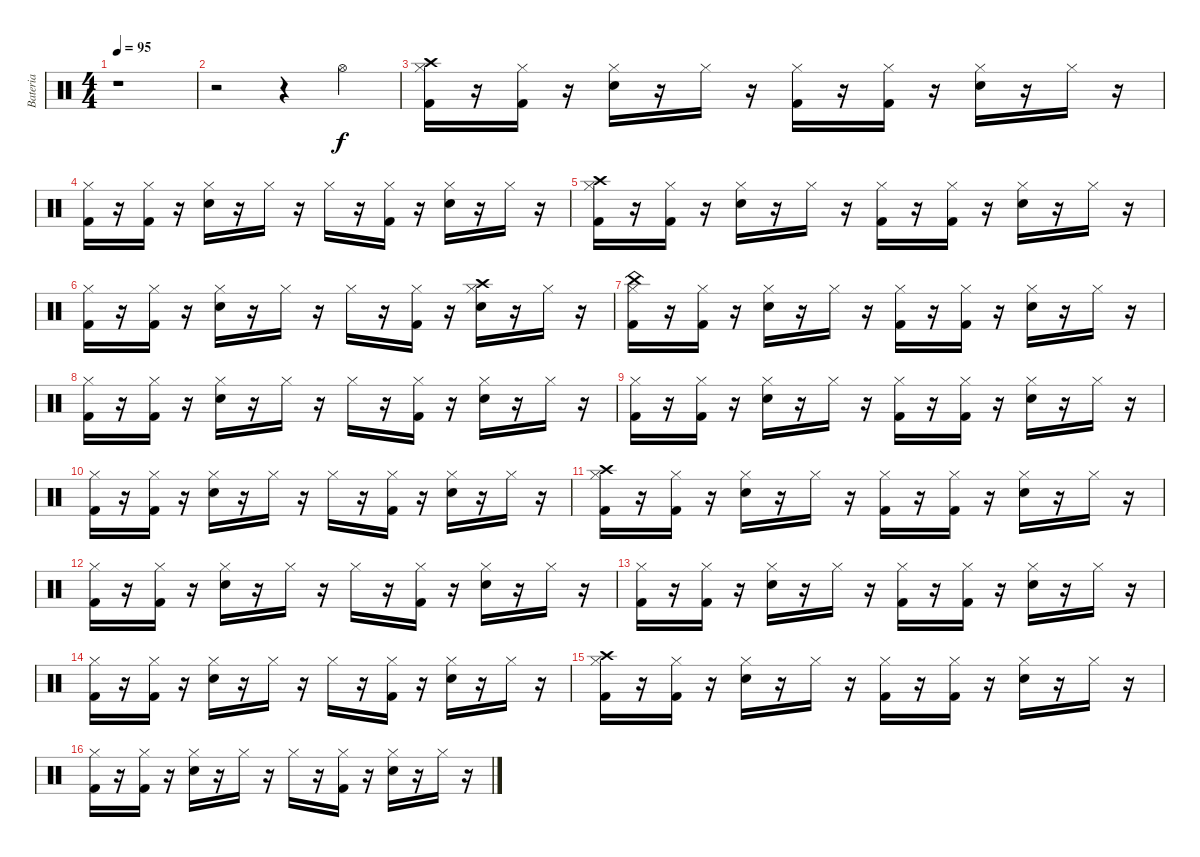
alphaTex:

\track ("Bateria" "Bateria") {instrument percussion}
\staff {score}
\articulation defaults
\ts (4 4)
\tempo 95
\clef neutral
\ks c
r.1{dy f} |
r.2 r.4 "Hi-Hat (open)".4 |
("Crash high (hit)" "Hi-Hat (closed)" "Kick (hit) 2").16 r.16 ("Hi-Hat (closed)" "Kick (hit) 2").16 r.16 ("Hi-Hat (closed)" "Snare (hit) 2").16 r.16 "Hi-Hat (closed)".16 r.16 ("Hi-Hat (closed)" "Kick (hit) 2").16 r.16 ("Hi-Hat (closed)" "Kick (hit) 2").16 r.16 ("Hi-Hat (closed)" "Snare (hit) 2").16 r.16 "Hi-Hat (closed)".16 r.16 |
("Hi-Hat (closed)" "Kick (hit) 2").16 r.16 ("Hi-Hat (closed)" "Kick (hit) 2").16 r.16 ("Hi-Hat (closed)" "Snare (hit) 2").16 r.16 "Hi-Hat (closed)".16 r.16 "Hi-Hat (closed)".16 r.16 ("Hi-Hat (closed)" "Kick (hit) 2").16 r.16 ("Hi-Hat (closed)" "Snare (hit) 2").16 r.16 "Hi-Hat (closed)".16 r.16 |
("Crash high (hit)" "Hi-Hat (closed)" "Kick (hit) 2").16 r.16 ("Hi-Hat (closed)" "Kick (hit) 2").16 r.16 ("Hi-Hat (closed)" "Snare (hit) 2").16 r.16 "Hi-Hat (closed)".16 r.16 ("Hi-Hat (closed)" "Kick (hit) 2").16 r.16 ("Hi-Hat (closed)" "Kick (hit) 2").16 r.16 ("Hi-Hat (closed)" "Snare (hit) 2").16 r.16 "Hi-Hat (closed)".16 r.16 |
("Hi-Hat (closed)" "Kick (hit) 2").16 r.16 ("Hi-Hat (closed)" "Kick (hit) 2").16 r.16 ("Hi-Hat (closed)" "Snare (hit) 2").16 r.16 "Hi-Hat (closed)".16 r.16 "Hi-Hat (closed)".16 r.16 ("Hi-Hat (closed)" "Kick (hit) 2").16 r.16 ("Crash high (hit)" "Hi-Hat (closed)" "Snare (hit) 2").16 r.16 "Hi-Hat (closed)".16 r.16 |
("China (hit)" "Hi-Hat (closed)" "Kick (hit) 2").16 r.16 ("Hi-Hat (closed)" "Kick (hit) 2").16 r.16 ("Hi-Hat (closed)" "Snare (hit) 2").16 r.16 "Hi-Hat (closed)".16 r.16 ("Hi-Hat (closed)" "Kick (hit) 2").16 r.16 ("Hi-Hat (closed)" "Kick (hit) 2").16 r.16 ("Hi-Hat (closed)" "Snare (hit) 2").16 r.16 "Hi-Hat (closed)".16 r.16 |
("Hi-Hat (closed)" "Kick (hit) 2").16 r.16 ("Hi-Hat (closed)" "Kick (hit) 2").16 r.16 ("Hi-Hat (closed)" "Snare (hit) 2").16 r.16 "Hi-Hat (closed)".16 r.16 "Hi-Hat (closed)".16 r.16 ("Hi-Hat (closed)" "Kick (hit) 2").16 r.16 ("Hi-Hat (closed)" "Snare (hit) 2").16 r.16 "Hi-Hat (closed)".16 r.16 |
("Hi-Hat (closed)" "Kick (hit) 2").16 r.16 ("Hi-Hat (closed)" "Kick (hit) 2").16 r.16 ("Hi-Hat (closed)" "Snare (hit) 2").16 r.16 "Hi-Hat (closed)".16 r.16 ("Hi-Hat (closed)" "Kick (hit) 2").16 r.16 ("Hi-Hat (closed)" "Kick (hit) 2").16 r.16 ("Hi-Hat (closed)" "Snare (hit) 2").16 r.16 "Hi-Hat (closed)".16 r.16 |
("Hi-Hat (closed)" "Kick (hit) 2").16 r.16 ("Hi-Hat (closed)" "Kick (hit) 2").16 r.16 ("Hi-Hat (closed)" "Snare (hit) 2").16 r.16 "Hi-Hat (closed)".16 r.16 "Hi-Hat (closed)".16 r.16 ("Hi-Hat (closed)" "Kick (hit) 2").16 r.16 ("Hi-Hat (closed)" "Snare (hit) 2").16 r.16 "Hi-Hat (closed)".16 r.16 |
("Crash high (hit)" "Hi-Hat (closed)" "Kick (hit) 2").16 r.16 ("Hi-Hat (closed)" "Kick (hit) 2").16 r.16 ("Hi-Hat (closed)" "Snare (hit) 2").16 r.16 "Hi-Hat (closed)".16 r.16 ("Hi-Hat (closed)" "Kick (hit) 2").16 r.16 ("Hi-Hat (closed)" "Kick (hit) 2").16 r.16 ("Hi-Hat (closed)" "Snare (hit) 2").16 r.16 "Hi-Hat (closed)".16 r.16 |
("Hi-Hat (closed)" "Kick (hit) 2").16 r.16 ("Hi-Hat (closed)" "Kick (hit) 2").16 r.16 ("Hi-Hat (closed)" "Snare (hit) 2").16 r.16 "Hi-Hat (closed)".16 r.16 "Hi-Hat (closed)".16 r.16 ("Hi-Hat (closed)" "Kick (hit) 2").16 r.16 ("Hi-Hat (closed)" "Snare (hit) 2").16 r.16 "Hi-Hat (closed)".16 r.16 |
("Hi-Hat (closed)" "Kick (hit) 2").16 r.16 ("Hi-Hat (closed)" "Kick (hit) 2").16 r.16 ("Hi-Hat (closed)" "Snare (hit) 2").16 r.16 "Hi-Hat (closed)".16 r.16 ("Hi-Hat (closed)" "Kick (hit) 2").16 r.16 ("Hi-Hat (closed)" "Kick (hit) 2").16 r.16 ("Hi-Hat (closed)" "Snare (hit) 2").16 r.16 "Hi-Hat (closed)".16 r.16 |
("Hi-Hat (closed)" "Kick (hit) 2").16 r.16 ("Hi-Hat (closed)" "Kick (hit) 2").16 r.16 ("Hi-Hat (closed)" "Snare (hit) 2").16 r.16 "Hi-Hat (closed)".16 r.16 "Hi-Hat (closed)".16 r.16 ("Hi-Hat (closed)" "Kick (hit) 2").16 r.16 ("Hi-Hat (closed)" "Snare (hit) 2").16 r.16 "Hi-Hat (closed)".16 r.16 |
("Crash high (hit)" "Hi-Hat (closed)" "Kick (hit) 2").16 r.16 ("Hi-Hat (closed)" "Kick (hit) 2").16 r.16 ("Hi-Hat (closed)" "Snare (hit) 2").16 r.16 "Hi-Hat (closed)".16 r.16 ("Hi-Hat (closed)" "Kick (hit) 2").16 r.16 ("Hi-Hat (closed)" "Kick (hit) 2").16 r.16 ("Hi-Hat (closed)" "Snare (hit) 2").16 r.16 "Hi-Hat (closed)".16 r.16 |
("Hi-Hat (closed)" "Kick (hit) 2").16 r.16 ("Hi-Hat (closed)" "Kick (hit) 2").16 r.16 ("Hi-Hat (closed)" "Snare (hit) 2").16 r.16 "Hi-Hat (closed)".16 r.16 "Hi-Hat (closed)".16 r.16 ("Hi-Hat (closed)" "Kick (hit) 2").16 r.16 ("Hi-Hat (closed)" "Snare (hit) 2").16 r.16 "Hi-Hat (closed)".16 r.16
